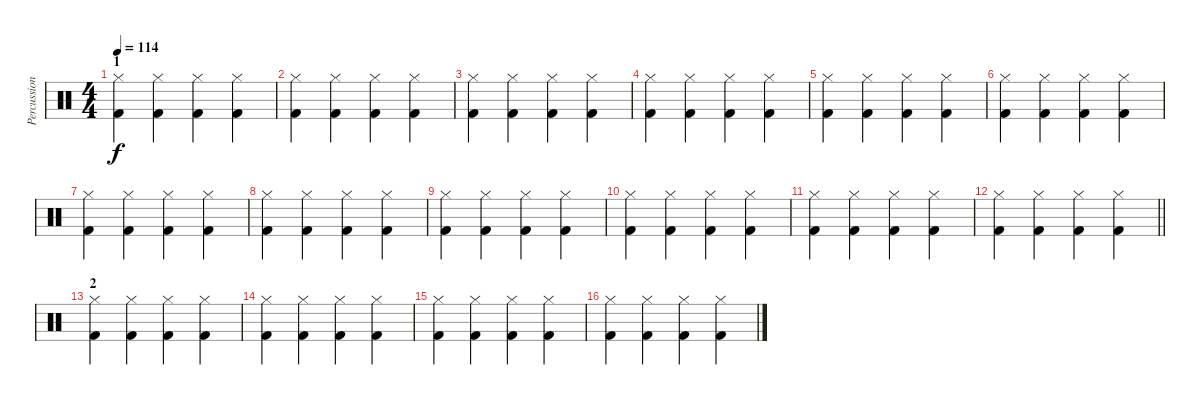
\track ("Percussions" "Percussion") {instrument percussion}
\staff {score}
\articulation defaults
\ts (4 4)
\section ("" "1")
\tempo 114
\clef neutral
\ks c
("Kick (hit) 2" "Hi-Hat (closed)").4{dy f} ("Kick (hit) 2" "Hi-Hat (closed)").4 ("Kick (hit) 2" "Hi-Hat (closed)").4 ("Kick (hit) 2" "Hi-Hat (closed)").4 |
("Kick (hit) 2" "Hi-Hat (closed)").4 ("Kick (hit) 2" "Hi-Hat (closed)").4 ("Kick (hit) 2" "Hi-Hat (closed)").4 ("Kick (hit) 2" "Hi-Hat (closed)").4 |
("Kick (hit) 2" "Hi-Hat (closed)").4 ("Kick (hit) 2" "Hi-Hat (closed)").4 ("Kick (hit) 2" "Hi-Hat (closed)").4 ("Kick (hit) 2" "Hi-Hat (closed)").4 |
("Kick (hit) 2" "Hi-Hat (closed)").4 ("Kick (hit) 2" "Hi-Hat (closed)").4 ("Kick (hit) 2" "Hi-Hat (closed)").4 ("Kick (hit) 2" "Hi-Hat (closed)").4 |
("Kick (hit) 2" "Hi-Hat (closed)").4 ("Kick (hit) 2" "Hi-Hat (closed)").4 ("Kick (hit) 2" "Hi-Hat (closed)").4 ("Kick (hit) 2" "Hi-Hat (closed)").4 |
("Kick (hit) 2" "Hi-Hat (closed)").4 ("Kick (hit) 2" "Hi-Hat (closed)").4 ("Kick (hit) 2" "Hi-Hat (closed)").4 ("Kick (hit) 2" "Hi-Hat (closed)").4 |
("Kick (hit) 2" "Hi-Hat (closed)").4 ("Kick (hit) 2" "Hi-Hat (closed)").4 ("Kick (hit) 2" "Hi-Hat (closed)").4 ("Kick (hit) 2" "Hi-Hat (closed)").4 |
("Kick (hit) 2" "Hi-Hat (closed)").4 ("Kick (hit) 2" "Hi-Hat (closed)").4 ("Kick (hit) 2" "Hi-Hat (closed)").4 ("Kick (hit) 2" "Hi-Hat (closed)").4 |
("Kick (hit) 2" "Hi-Hat (closed)").4 ("Kick (hit) 2" "Hi-Hat (closed)").4 ("Kick (hit) 2" "Hi-Hat (closed)").4 ("Kick (hit) 2" "Hi-Hat (closed)").4 |
("Kick (hit) 2" "Hi-Hat (closed)").4 ("Kick (hit) 2" "Hi-Hat (closed)").4 ("Kick (hit) 2" "Hi-Hat (closed)").4 ("Kick (hit) 2" "Hi-Hat (closed)").4 |
("Kick (hit) 2" "Hi-Hat (closed)").4 ("Kick (hit) 2" "Hi-Hat (closed)").4 ("Kick (hit) 2" "Hi-Hat (closed)").4 ("Kick (hit) 2" "Hi-Hat (closed)").4 |
\barLineRight lightlight
("Kick (hit) 2" "Hi-Hat (closed)").4 ("Kick (hit) 2" "Hi-Hat (closed)").4 ("Kick (hit) 2" "Hi-Hat (closed)").4 ("Kick (hit) 2" "Hi-Hat (closed)").4 |
\section ("" "2")
("Kick (hit) 2" "Hi-Hat (closed)").4 ("Kick (hit) 2" "Hi-Hat (closed)").4 ("Kick (hit) 2" "Hi-Hat (closed)").4 ("Kick (hit) 2" "Hi-Hat (closed)").4 |
("Kick (hit) 2" "Hi-Hat (closed)").4 ("Kick (hit) 2" "Hi-Hat (closed)").4 ("Kick (hit) 2" "Hi-Hat (closed)").4 ("Kick (hit) 2" "Hi-Hat (closed)").4 |
("Kick (hit) 2" "Hi-Hat (closed)").4 ("Kick (hit) 2" "Hi-Hat (closed)").4 ("Kick (hit) 2" "Hi-Hat (closed)").4 ("Kick (hit) 2" "Hi-Hat (closed)").4 |
("Kick (hit) 2" "Hi-Hat (closed)").4 ("Kick (hit) 2" "Hi-Hat (closed)").4 ("Kick (hit) 2" "Hi-Hat (closed)").4 ("Kick (hit) 2" "Hi-Hat (closed)").4
